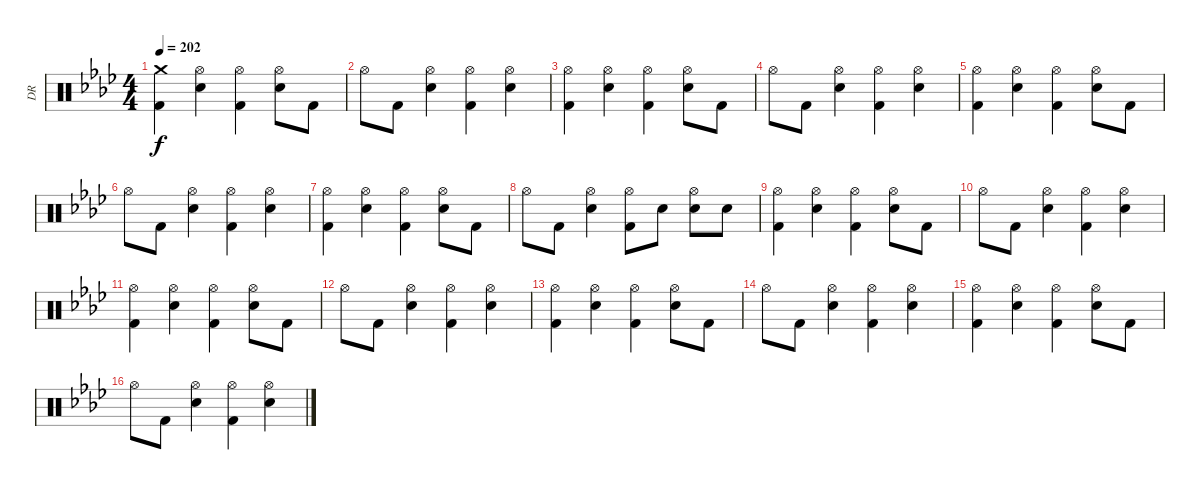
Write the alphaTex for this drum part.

\track ("DR" "DR") {instrument percussion}
\staff {score}
\articulation defaults
\ts (4 4)
\tempo 202
\clef neutral
\ks ab
("Crash medium (hit)" "Kick (hit) 2").4{dy f} ("Hi-Hat (open)" "Electric Snare (hit)").4 ("Hi-Hat (open)" "Kick (hit) 2").4 ("Hi-Hat (open)" "Electric Snare (hit)").8 "Kick (hit) 2".8 |
"Hi-Hat (open)".8 "Kick (hit) 2".8 ("Hi-Hat (open)" "Electric Snare (hit)").4 ("Hi-Hat (open)" "Kick (hit) 2").4 ("Hi-Hat (open)" "Electric Snare (hit)").4 |
("Hi-Hat (open)" "Kick (hit) 2").4 ("Hi-Hat (open)" "Electric Snare (hit)").4 ("Hi-Hat (open)" "Kick (hit) 2").4 ("Hi-Hat (open)" "Electric Snare (hit)").8 "Kick (hit) 2".8 |
"Hi-Hat (open)".8 "Kick (hit) 2".8 ("Hi-Hat (open)" "Electric Snare (hit)").4 ("Hi-Hat (open)" "Kick (hit) 2").4 ("Hi-Hat (open)" "Electric Snare (hit)").4 |
("Hi-Hat (open)" "Kick (hit) 2").4 ("Hi-Hat (open)" "Electric Snare (hit)").4 ("Hi-Hat (open)" "Kick (hit) 2").4 ("Hi-Hat (open)" "Electric Snare (hit)").8 "Kick (hit) 2".8 |
"Hi-Hat (open)".8 "Kick (hit) 2".8 ("Hi-Hat (open)" "Electric Snare (hit)").4 ("Hi-Hat (open)" "Kick (hit) 2").4 ("Hi-Hat (open)" "Electric Snare (hit)").4 |
("Hi-Hat (open)" "Kick (hit) 2").4 ("Hi-Hat (open)" "Electric Snare (hit)").4 ("Hi-Hat (open)" "Kick (hit) 2").4 ("Hi-Hat (open)" "Electric Snare (hit)").8 "Kick (hit) 2".8 |
"Hi-Hat (open)".8 "Kick (hit) 2".8 ("Hi-Hat (open)" "Electric Snare (hit)").4 ("Hi-Hat (open)" "Kick (hit) 2").8 "Electric Snare (hit)".8 ("Hi-Hat (open)" "Electric Snare (hit)").8 "Electric Snare (hit)".8 |
("Hi-Hat (open)" "Kick (hit) 2").4 ("Hi-Hat (open)" "Electric Snare (hit)").4 ("Hi-Hat (open)" "Kick (hit) 2").4 ("Hi-Hat (open)" "Electric Snare (hit)").8 "Kick (hit) 2".8 |
"Hi-Hat (open)".8 "Kick (hit) 2".8 ("Hi-Hat (open)" "Electric Snare (hit)").4 ("Hi-Hat (open)" "Kick (hit) 2").4 ("Hi-Hat (open)" "Electric Snare (hit)").4 |
("Hi-Hat (open)" "Kick (hit) 2").4 ("Hi-Hat (open)" "Electric Snare (hit)").4 ("Hi-Hat (open)" "Kick (hit) 2").4 ("Hi-Hat (open)" "Electric Snare (hit)").8 "Kick (hit) 2".8 |
"Hi-Hat (open)".8 "Kick (hit) 2".8 ("Hi-Hat (open)" "Electric Snare (hit)").4 ("Hi-Hat (open)" "Kick (hit) 2").4 ("Hi-Hat (open)" "Electric Snare (hit)").4 |
("Hi-Hat (open)" "Kick (hit) 2").4 ("Hi-Hat (open)" "Electric Snare (hit)").4 ("Hi-Hat (open)" "Kick (hit) 2").4 ("Hi-Hat (open)" "Electric Snare (hit)").8 "Kick (hit) 2".8 |
"Hi-Hat (open)".8 "Kick (hit) 2".8 ("Hi-Hat (open)" "Electric Snare (hit)").4 ("Hi-Hat (open)" "Kick (hit) 2").4 ("Hi-Hat (open)" "Electric Snare (hit)").4 |
("Hi-Hat (open)" "Kick (hit) 2").4 ("Hi-Hat (open)" "Electric Snare (hit)").4 ("Hi-Hat (open)" "Kick (hit) 2").4 ("Hi-Hat (open)" "Electric Snare (hit)").8 "Kick (hit) 2".8 |
"Hi-Hat (open)".8 "Kick (hit) 2".8 ("Hi-Hat (open)" "Electric Snare (hit)").4 ("Hi-Hat (open)" "Kick (hit) 2").4 ("Hi-Hat (open)" "Electric Snare (hit)").4
